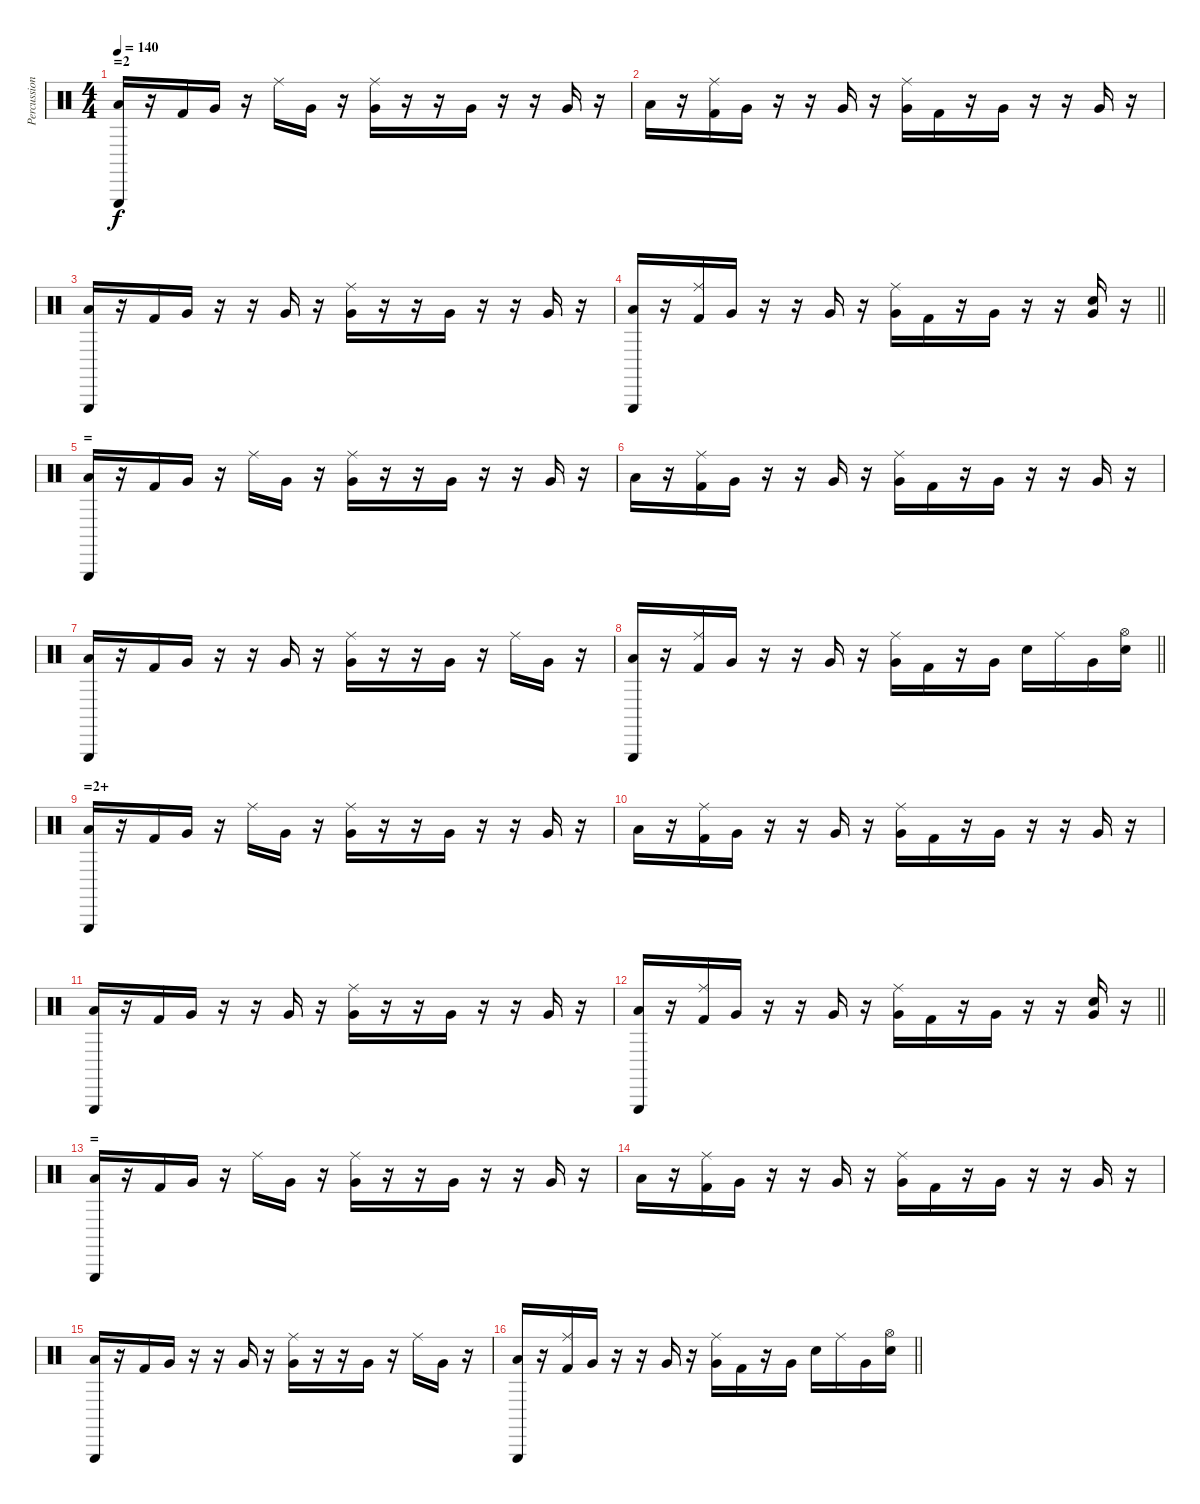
\track ("Percussion" "Percussion") {instrument percussion}
\staff {score}
\articulation defaults
\ts (4 4)
\section ("" "=2")
\tempo 140
\clef neutral
\ks c
("Low Floor Tom (hit)" "Triangle (hit)").16{dy f} r.16 "Kick (hit) 2".16 "Very Low Tom (hit)".16 r.16 "Ride (middle)".16 "Very Low Tom (hit)".16 r.16 ("Very Low Tom (hit)" "Ride (middle)").16 r.16 r.16 "Very Low Tom (hit)".16 r.16 r.16 "Very Low Tom (hit)".16 r.16 |
"Low Floor Tom (hit)".16 r.16 ("Kick (hit) 2" "Ride (middle)").16 "Very Low Tom (hit)".16 r.16 r.16 "Very Low Tom (hit)".16 r.16 ("Very Low Tom (hit)" "Ride (middle)").16 "Kick (hit) 2".16 r.16 "Very Low Tom (hit)".16 r.16 r.16 "Very Low Tom (hit)".16 r.16 |
("Low Floor Tom (hit)" "Triangle (hit)").16 r.16 "Kick (hit) 2".16 "Very Low Tom (hit)".16 r.16 r.16 "Very Low Tom (hit)".16 r.16 ("Very Low Tom (hit)" "Ride (middle)").16 r.16 r.16 "Very Low Tom (hit)".16 r.16 r.16 "Very Low Tom (hit)".16 r.16 |
\barLineRight lightlight
("Low Floor Tom (hit)" "Triangle (hit)").16 r.16 ("Kick (hit) 2" "Ride (middle)").16 "Very Low Tom (hit)".16 r.16 r.16 "Very Low Tom (hit)".16 r.16 ("Very Low Tom (hit)" "Ride (middle)").16 "Kick (hit) 2".16 r.16 "Very Low Tom (hit)".16 r.16 r.16 ("Very Low Tom (hit)" "Electric Snare (hit)").16 r.16 |
\section ("" "=")
("Low Floor Tom (hit)" "Triangle (hit)").16 r.16 "Kick (hit) 2".16 "Very Low Tom (hit)".16 r.16 "Ride (middle)".16 "Very Low Tom (hit)".16 r.16 ("Very Low Tom (hit)" "Ride (middle)").16 r.16 r.16 "Very Low Tom (hit)".16 r.16 r.16 "Very Low Tom (hit)".16 r.16 |
"Low Floor Tom (hit)".16 r.16 ("Kick (hit) 2" "Ride (middle)").16 "Very Low Tom (hit)".16 r.16 r.16 "Very Low Tom (hit)".16 r.16 ("Very Low Tom (hit)" "Ride (middle)").16 "Kick (hit) 2".16 r.16 "Very Low Tom (hit)".16 r.16 r.16 "Very Low Tom (hit)".16 r.16 |
("Low Floor Tom (hit)" "Triangle (hit)").16 r.16 "Kick (hit) 2".16 "Very Low Tom (hit)".16 r.16 r.16 "Very Low Tom (hit)".16 r.16 ("Very Low Tom (hit)" "Ride (middle)").16 r.16 r.16 "Very Low Tom (hit)".16 r.16 "Ride (middle)".16 "Very Low Tom (hit)".16 r.16 |
\barLineRight lightlight
("Low Floor Tom (hit)" "Triangle (hit)").16 r.16 ("Kick (hit) 2" "Ride (middle)").16 "Very Low Tom (hit)".16 r.16 r.16 "Very Low Tom (hit)".16 r.16 ("Very Low Tom (hit)" "Ride (middle)").16 "Kick (hit) 2".16 r.16 "Very Low Tom (hit)".16 "Electric Snare (hit)".16 "Ride (middle)".16 "Very Low Tom (hit)".16 ("Electric Snare (hit)" "Hi-Hat (open)").16 |
\section ("" "=2+")
("Low Floor Tom (hit)" "Triangle (hit)").16 r.16 "Kick (hit) 2".16 "Very Low Tom (hit)".16 r.16 "Ride (middle)".16 "Very Low Tom (hit)".16 r.16 ("Very Low Tom (hit)" "Ride (middle)").16 r.16 r.16 "Very Low Tom (hit)".16 r.16 r.16 "Very Low Tom (hit)".16 r.16 |
"Low Floor Tom (hit)".16 r.16 ("Kick (hit) 2" "Ride (middle)").16 "Very Low Tom (hit)".16 r.16 r.16 "Very Low Tom (hit)".16 r.16 ("Very Low Tom (hit)" "Ride (middle)").16 "Kick (hit) 2".16 r.16 "Very Low Tom (hit)".16 r.16 r.16 "Very Low Tom (hit)".16 r.16 |
("Low Floor Tom (hit)" "Triangle (hit)").16 r.16 "Kick (hit) 2".16 "Very Low Tom (hit)".16 r.16 r.16 "Very Low Tom (hit)".16 r.16 ("Very Low Tom (hit)" "Ride (middle)").16 r.16 r.16 "Very Low Tom (hit)".16 r.16 r.16 "Very Low Tom (hit)".16 r.16 |
\barLineRight lightlight
("Low Floor Tom (hit)" "Triangle (hit)").16 r.16 ("Kick (hit) 2" "Ride (middle)").16 "Very Low Tom (hit)".16 r.16 r.16 "Very Low Tom (hit)".16 r.16 ("Very Low Tom (hit)" "Ride (middle)").16 "Kick (hit) 2".16 r.16 "Very Low Tom (hit)".16 r.16 r.16 ("Very Low Tom (hit)" "Electric Snare (hit)").16 r.16 |
\section ("" "=")
("Low Floor Tom (hit)" "Triangle (hit)").16 r.16 "Kick (hit) 2".16 "Very Low Tom (hit)".16 r.16 "Ride (middle)".16 "Very Low Tom (hit)".16 r.16 ("Very Low Tom (hit)" "Ride (middle)").16 r.16 r.16 "Very Low Tom (hit)".16 r.16 r.16 "Very Low Tom (hit)".16 r.16 |
"Low Floor Tom (hit)".16 r.16 ("Kick (hit) 2" "Ride (middle)").16 "Very Low Tom (hit)".16 r.16 r.16 "Very Low Tom (hit)".16 r.16 ("Very Low Tom (hit)" "Ride (middle)").16 "Kick (hit) 2".16 r.16 "Very Low Tom (hit)".16 r.16 r.16 "Very Low Tom (hit)".16 r.16 |
("Low Floor Tom (hit)" "Triangle (hit)").16 r.16 "Kick (hit) 2".16 "Very Low Tom (hit)".16 r.16 r.16 "Very Low Tom (hit)".16 r.16 ("Very Low Tom (hit)" "Ride (middle)").16 r.16 r.16 "Very Low Tom (hit)".16 r.16 "Ride (middle)".16 "Very Low Tom (hit)".16 r.16 |
\barLineRight lightlight
("Low Floor Tom (hit)" "Triangle (hit)").16 r.16 ("Kick (hit) 2" "Ride (middle)").16 "Very Low Tom (hit)".16 r.16 r.16 "Very Low Tom (hit)".16 r.16 ("Very Low Tom (hit)" "Ride (middle)").16 "Kick (hit) 2".16 r.16 "Very Low Tom (hit)".16 "Electric Snare (hit)".16 "Ride (middle)".16 "Very Low Tom (hit)".16 ("Electric Snare (hit)" "Hi-Hat (open)").16
